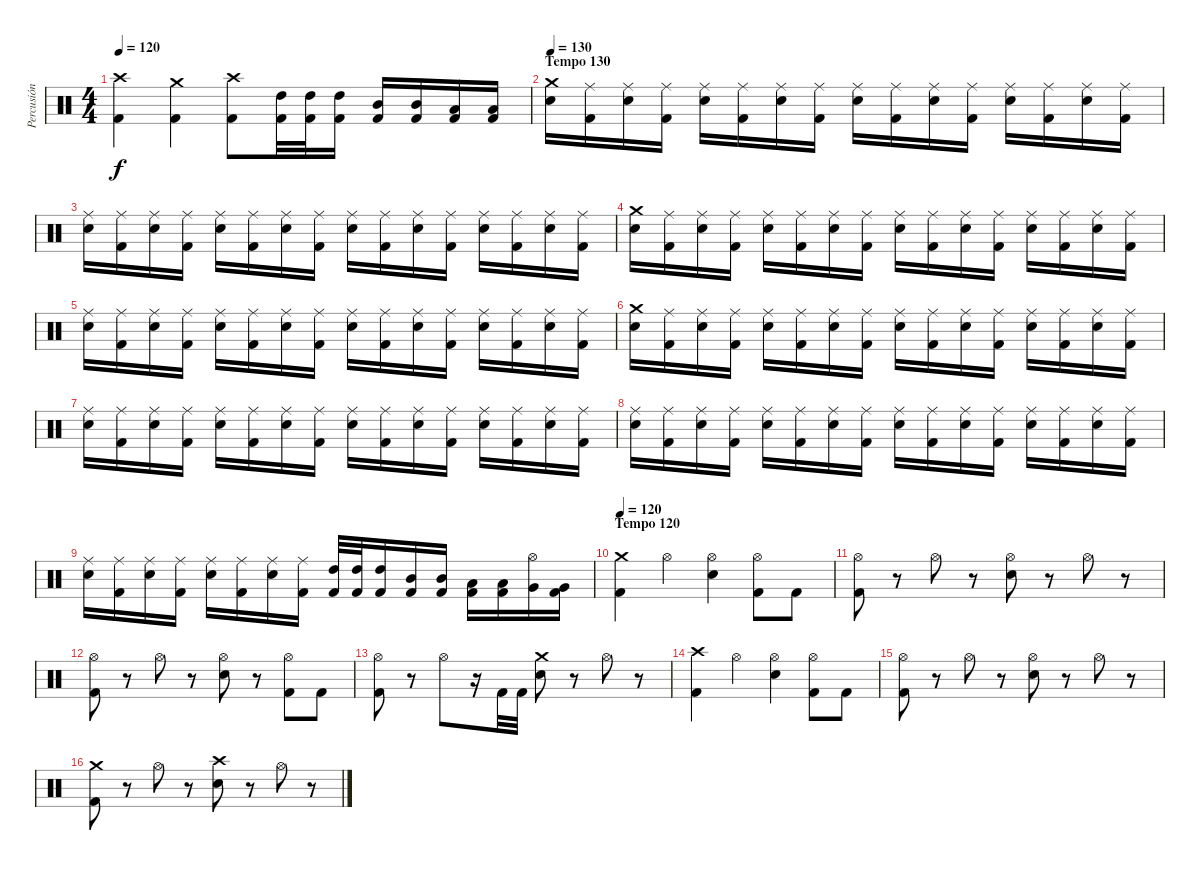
\track ("Percusión" "Percusión") {instrument percussion}
\staff {score}
\articulation defaults
\ts (4 4)
\tempo 120
\clef neutral
\ks c
("Crash high (hit)" "Kick (hit) 2").4{dy f} ("Crash medium (hit)" "Kick (hit) 2").4 ("Crash high (hit)" "Kick (hit) 2").8 ("High Tom (hit)" "Kick (hit) 2").32 ("High Tom (hit)" "Kick (hit) 2").32 ("High Tom (hit)" "Kick (hit) 2").16 ("Mid Tom (hit)" "Kick (hit) 2").16 ("Mid Tom (hit)" "Kick (hit) 2").16 ("Low Tom (hit)" "Kick (hit) 2").16 ("Low Tom (hit)" "Kick (hit) 2").16 |
\section ("" "Tempo 130")
\tempo 130
("Crash medium (hit)" "Electric Snare (hit)").16 ("Ride (middle)" "Kick (hit) 2").16 ("Ride (middle)" "Electric Snare (hit)").16 ("Ride (middle)" "Kick (hit) 2").16 ("Ride (middle)" "Electric Snare (hit)").16 ("Ride (middle)" "Kick (hit) 2").16 ("Ride (middle)" "Electric Snare (hit)").16 ("Ride (middle)" "Kick (hit) 2").16 ("Ride (middle)" "Electric Snare (hit)").16 ("Ride (middle)" "Kick (hit) 2").16 ("Ride (middle)" "Electric Snare (hit)").16 ("Ride (middle)" "Kick (hit) 2").16 ("Ride (middle)" "Electric Snare (hit)").16 ("Ride (middle)" "Kick (hit) 2").16 ("Ride (middle)" "Electric Snare (hit)").16 ("Ride (middle)" "Kick (hit) 2").16 |
("Ride (middle)" "Electric Snare (hit)").16 ("Ride (middle)" "Kick (hit) 2").16 ("Ride (middle)" "Electric Snare (hit)").16 ("Ride (middle)" "Kick (hit) 2").16 ("Ride (middle)" "Electric Snare (hit)").16 ("Ride (middle)" "Kick (hit) 2").16 ("Ride (middle)" "Electric Snare (hit)").16 ("Ride (middle)" "Kick (hit) 2").16 ("Ride (middle)" "Electric Snare (hit)").16 ("Ride (middle)" "Kick (hit) 2").16 ("Ride (middle)" "Electric Snare (hit)").16 ("Ride (middle)" "Kick (hit) 2").16 ("Ride (middle)" "Electric Snare (hit)").16 ("Ride (middle)" "Kick (hit) 2").16 ("Ride (middle)" "Electric Snare (hit)").16 ("Ride (middle)" "Kick (hit) 2").16 |
("Crash medium (hit)" "Electric Snare (hit)").16 ("Ride (middle)" "Kick (hit) 2").16 ("Ride (middle)" "Electric Snare (hit)").16 ("Ride (middle)" "Kick (hit) 2").16 ("Ride (middle)" "Electric Snare (hit)").16 ("Ride (middle)" "Kick (hit) 2").16 ("Ride (middle)" "Electric Snare (hit)").16 ("Ride (middle)" "Kick (hit) 2").16 ("Ride (middle)" "Electric Snare (hit)").16 ("Ride (middle)" "Kick (hit) 2").16 ("Ride (middle)" "Electric Snare (hit)").16 ("Ride (middle)" "Kick (hit) 2").16 ("Ride (middle)" "Electric Snare (hit)").16 ("Ride (middle)" "Kick (hit) 2").16 ("Ride (middle)" "Electric Snare (hit)").16 ("Ride (middle)" "Kick (hit) 2").16 |
("Ride (middle)" "Electric Snare (hit)").16 ("Ride (middle)" "Kick (hit) 2").16 ("Ride (middle)" "Electric Snare (hit)").16 ("Ride (middle)" "Kick (hit) 2").16 ("Ride (middle)" "Electric Snare (hit)").16 ("Ride (middle)" "Kick (hit) 2").16 ("Ride (middle)" "Electric Snare (hit)").16 ("Ride (middle)" "Kick (hit) 2").16 ("Ride (middle)" "Electric Snare (hit)").16 ("Ride (middle)" "Kick (hit) 2").16 ("Ride (middle)" "Electric Snare (hit)").16 ("Ride (middle)" "Kick (hit) 2").16 ("Ride (middle)" "Electric Snare (hit)").16 ("Ride (middle)" "Kick (hit) 2").16 ("Ride (middle)" "Electric Snare (hit)").16 ("Ride (middle)" "Kick (hit) 2").16 |
("Crash medium (hit)" "Electric Snare (hit)").16 ("Ride (middle)" "Kick (hit) 2").16 ("Ride (middle)" "Electric Snare (hit)").16 ("Ride (middle)" "Kick (hit) 2").16 ("Ride (middle)" "Electric Snare (hit)").16 ("Ride (middle)" "Kick (hit) 2").16 ("Ride (middle)" "Electric Snare (hit)").16 ("Ride (middle)" "Kick (hit) 2").16 ("Ride (middle)" "Electric Snare (hit)").16 ("Ride (middle)" "Kick (hit) 2").16 ("Ride (middle)" "Electric Snare (hit)").16 ("Ride (middle)" "Kick (hit) 2").16 ("Ride (middle)" "Electric Snare (hit)").16 ("Ride (middle)" "Kick (hit) 2").16 ("Ride (middle)" "Electric Snare (hit)").16 ("Ride (middle)" "Kick (hit) 2").16 |
("Ride (middle)" "Electric Snare (hit)").16 ("Ride (middle)" "Kick (hit) 2").16 ("Ride (middle)" "Electric Snare (hit)").16 ("Ride (middle)" "Kick (hit) 2").16 ("Ride (middle)" "Electric Snare (hit)").16 ("Ride (middle)" "Kick (hit) 2").16 ("Ride (middle)" "Electric Snare (hit)").16 ("Ride (middle)" "Kick (hit) 2").16 ("Ride (middle)" "Electric Snare (hit)").16 ("Ride (middle)" "Kick (hit) 2").16 ("Ride (middle)" "Electric Snare (hit)").16 ("Ride (middle)" "Kick (hit) 2").16 ("Ride (middle)" "Electric Snare (hit)").16 ("Ride (middle)" "Kick (hit) 2").16 ("Ride (middle)" "Electric Snare (hit)").16 ("Ride (middle)" "Kick (hit) 2").16 |
("Ride (middle)" "Electric Snare (hit)").16 ("Ride (middle)" "Kick (hit) 2").16 ("Ride (middle)" "Electric Snare (hit)").16 ("Ride (middle)" "Kick (hit) 2").16 ("Ride (middle)" "Electric Snare (hit)").16 ("Ride (middle)" "Kick (hit) 2").16 ("Ride (middle)" "Electric Snare (hit)").16 ("Ride (middle)" "Kick (hit) 2").16 ("Ride (middle)" "Electric Snare (hit)").16 ("Ride (middle)" "Kick (hit) 2").16 ("Ride (middle)" "Electric Snare (hit)").16 ("Ride (middle)" "Kick (hit) 2").16 ("Ride (middle)" "Electric Snare (hit)").16 ("Ride (middle)" "Kick (hit) 2").16 ("Ride (middle)" "Electric Snare (hit)").16 ("Ride (middle)" "Kick (hit) 2").16 |
("Ride (middle)" "Electric Snare (hit)").16 ("Ride (middle)" "Kick (hit) 2").16 ("Ride (middle)" "Electric Snare (hit)").16 ("Ride (middle)" "Kick (hit) 2").16 ("Ride (middle)" "Electric Snare (hit)").16 ("Ride (middle)" "Kick (hit) 2").16 ("Ride (middle)" "Electric Snare (hit)").16 ("Ride (middle)" "Kick (hit) 2").16 ("High Tom (hit)" "Kick (hit) 2").32 ("High Tom (hit)" "Kick (hit) 2").32 ("High Tom (hit)" "Kick (hit) 2").16 ("Mid Tom (hit)" "Kick (hit) 2").16 ("Mid Tom (hit)" "Kick (hit) 2").16 ("Low Tom (hit)" "Kick (hit) 2").16 ("Low Tom (hit)" "Kick (hit) 2").16 ("Very Low Tom (hit)" "Hi-Hat (open)").16 ("Very Low Tom (hit)" "Kick (hit) 2").16 |
\section ("" "Tempo 120")
\tempo 120
("Crash medium (hit)" "Kick (hit) 2").4 "Hi-Hat (open)".4 ("Hi-Hat (open)" "Electric Snare (hit)").4 ("Hi-Hat (open)" "Kick (hit) 2").8 "Kick (hit) 2".8 |
("Hi-Hat (open)" "Kick (hit) 2").8 r.8 "Hi-Hat (open)".8 r.8 ("Hi-Hat (open)" "Electric Snare (hit)").8 r.8 "Hi-Hat (open)".8 r.8 |
("Hi-Hat (open)" "Kick (hit) 2").8 r.8 "Hi-Hat (open)".8 r.8 ("Hi-Hat (open)" "Electric Snare (hit)").8 r.8 ("Hi-Hat (open)" "Kick (hit) 2").8 "Kick (hit) 2".8 |
("Hi-Hat (open)" "Kick (hit) 2").8 r.8 "Hi-Hat (open)".8 r.16 "Kick (hit) 2".32 "Kick (hit) 2".32 ("Crash medium (hit)" "Electric Snare (hit)").8 r.8 "Hi-Hat (open)".8 r.8 |
("Crash high (hit)" "Kick (hit) 2").4 "Hi-Hat (open)".4 ("Hi-Hat (open)" "Electric Snare (hit)").4 ("Hi-Hat (open)" "Kick (hit) 2").8 "Kick (hit) 2".8 |
("Hi-Hat (open)" "Kick (hit) 2").8 r.8 "Hi-Hat (open)".8 r.8 ("Hi-Hat (open)" "Electric Snare (hit)").8 r.8 "Hi-Hat (open)".8 r.8 |
("Crash medium (hit)" "Kick (hit) 2").8 r.8 "Hi-Hat (open)".8 r.8 ("Crash high (hit)" "Electric Snare (hit)").8 r.8 "Hi-Hat (open)".8 r.8
